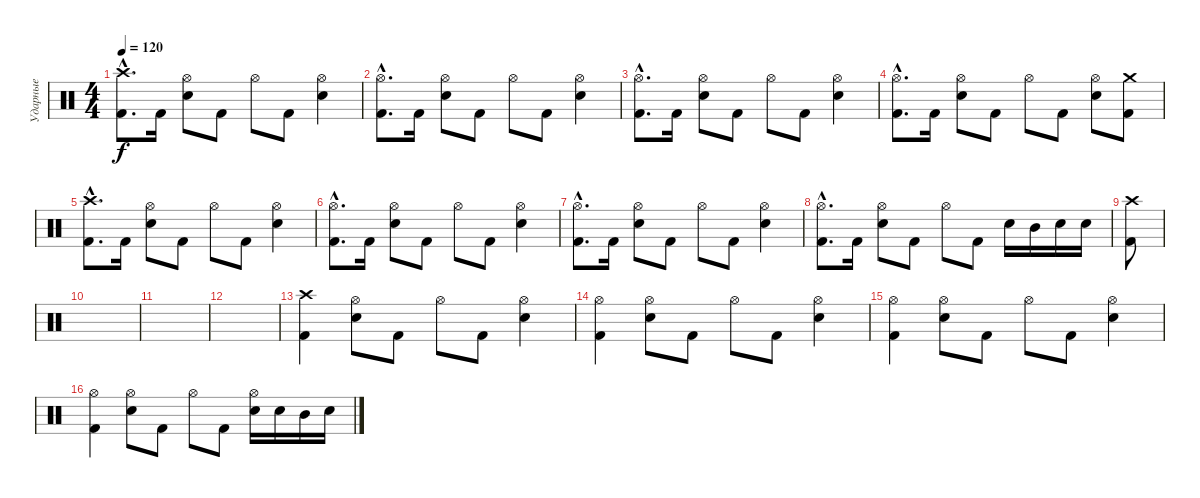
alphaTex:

\track ("Ударные" "Ударные") {instrument percussion}
\staff {score}
\articulation defaults
\ts (4 4)
\tempo 120
\clef neutral
\ks c
("Crash high (hit)"{hac} "Kick (hit) 2"{hac}).8{d dy f} "Kick (hit) 2".16 ("Hi-Hat (open)" "Electric Snare (hit)").8 "Kick (hit) 2".8 "Hi-Hat (open)".8 "Kick (hit) 2".8 ("Hi-Hat (open)" "Electric Snare (hit)").4 |
("Hi-Hat (open)"{hac} "Kick (hit) 2"{hac}).8{d} "Kick (hit) 2".16 ("Hi-Hat (open)" "Electric Snare (hit)").8 "Kick (hit) 2".8 "Hi-Hat (open)".8 "Kick (hit) 2".8 ("Hi-Hat (open)" "Electric Snare (hit)").4 |
("Hi-Hat (open)"{hac} "Kick (hit) 2"{hac}).8{d} "Kick (hit) 2".16 ("Hi-Hat (open)" "Electric Snare (hit)").8 "Kick (hit) 2".8 "Hi-Hat (open)".8 "Kick (hit) 2".8 ("Hi-Hat (open)" "Electric Snare (hit)").4 |
("Hi-Hat (open)"{hac} "Kick (hit) 2"{hac}).8{d} "Kick (hit) 2".16 ("Hi-Hat (open)" "Electric Snare (hit)").8 "Kick (hit) 2".8 "Hi-Hat (open)".8 "Kick (hit) 2".8 ("Hi-Hat (open)" "Electric Snare (hit)").8 ("Crash medium (hit)" "Kick (hit) 2").8 |
("Crash high (hit)"{hac} "Kick (hit) 2"{hac}).8{d} "Kick (hit) 2".16 ("Hi-Hat (open)" "Electric Snare (hit)").8 "Kick (hit) 2".8 "Hi-Hat (open)".8 "Kick (hit) 2".8 ("Hi-Hat (open)" "Electric Snare (hit)").4 |
("Hi-Hat (open)"{hac} "Kick (hit) 2"{hac}).8{d} "Kick (hit) 2".16 ("Hi-Hat (open)" "Electric Snare (hit)").8 "Kick (hit) 2".8 "Hi-Hat (open)".8 "Kick (hit) 2".8 ("Hi-Hat (open)" "Electric Snare (hit)").4 |
("Hi-Hat (open)"{hac} "Kick (hit) 2"{hac}).8{d} "Kick (hit) 2".16 ("Hi-Hat (open)" "Electric Snare (hit)").8 "Kick (hit) 2".8 "Hi-Hat (open)".8 "Kick (hit) 2".8 ("Hi-Hat (open)" "Electric Snare (hit)").4 |
("Hi-Hat (open)"{hac} "Kick (hit) 2"{hac}).8{d} "Kick (hit) 2".16 ("Hi-Hat (open)" "Electric Snare (hit)").8 "Kick (hit) 2".8 "Hi-Hat (open)".8 "Kick (hit) 2".8 "Electric Snare (hit)".16 "Mid Tom (hit)".16 "Electric Snare (hit)".16 "Electric Snare (hit)".16 |
("Crash high (hit)" "Kick (hit) 2").8 |
|
|
|
("Crash high (hit)" "Kick (hit) 2").4 ("Hi-Hat (open)" "Electric Snare (hit)").8 "Kick (hit) 2".8 "Hi-Hat (open)".8 "Kick (hit) 2".8 ("Hi-Hat (open)" "Electric Snare (hit)").4 |
("Hi-Hat (open)" "Kick (hit) 2").4 ("Hi-Hat (open)" "Electric Snare (hit)").8 "Kick (hit) 2".8 "Hi-Hat (open)".8 "Kick (hit) 2".8 ("Hi-Hat (open)" "Electric Snare (hit)").4 |
("Hi-Hat (open)" "Kick (hit) 2").4 ("Hi-Hat (open)" "Electric Snare (hit)").8 "Kick (hit) 2".8 "Hi-Hat (open)".8 "Kick (hit) 2".8 ("Hi-Hat (open)" "Electric Snare (hit)").4 |
("Hi-Hat (open)" "Kick (hit) 2").4 ("Hi-Hat (open)" "Electric Snare (hit)").8 "Kick (hit) 2".8 "Hi-Hat (open)".8 "Kick (hit) 2".8 ("Hi-Hat (open)" "Electric Snare (hit)").16 "Electric Snare (hit)".16 "Mid Tom (hit)".16 "Electric Snare (hit)".16
